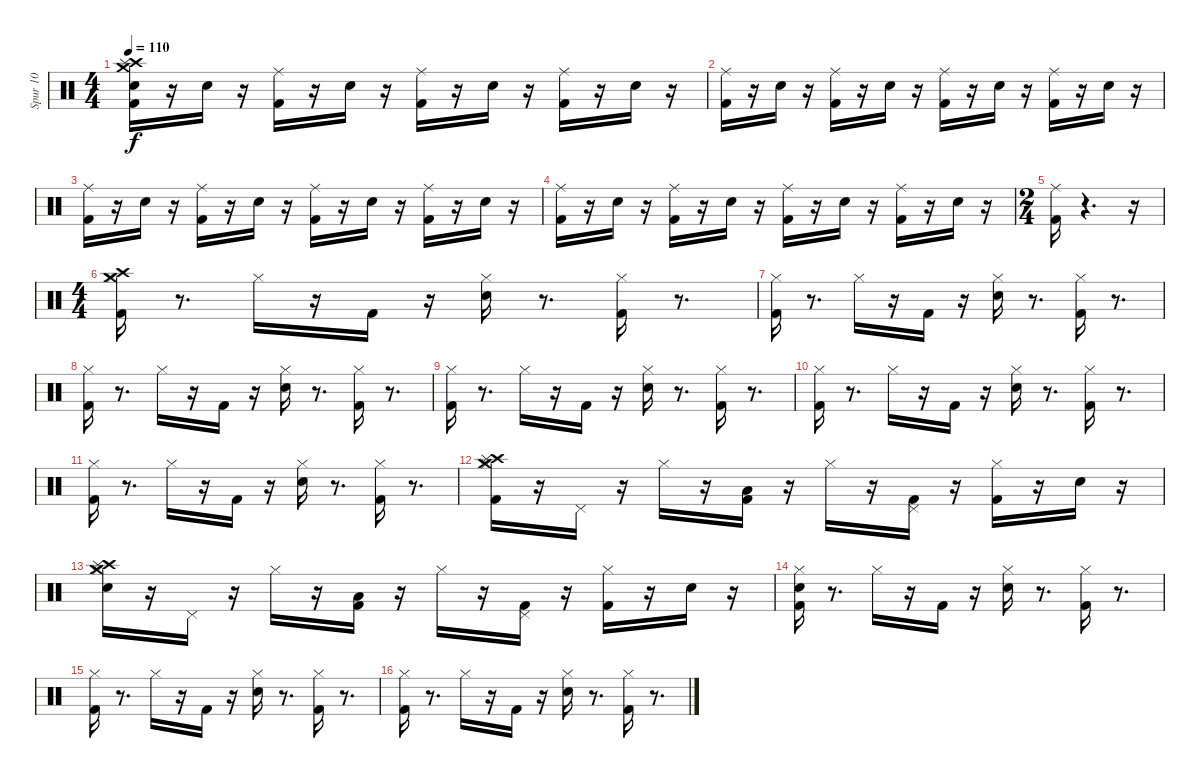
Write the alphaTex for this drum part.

\track ("Spur 10" "Spur 10") {instrument percussion}
\staff {score}
\articulation defaults
\ts (4 4)
\tempo 110
\clef neutral
\ks c
("Kick (hit) 2" "Snare (hit) 2" "Crash high (hit)" "Splash (hit)" "Crash medium (hit)").16{dy f} r.16 "Snare (hit) 2".16 r.16 ("Kick (hit) 2" "Ride (middle)").16 r.16 "Snare (hit) 2".16 r.16 ("Kick (hit) 2" "Ride (middle)").16 r.16 "Snare (hit) 2".16 r.16 ("Kick (hit) 2" "Ride (middle)").16 r.16 "Snare (hit) 2".16 r.16 |
("Kick (hit) 2" "Ride (middle)").16 r.16 "Snare (hit) 2".16 r.16 ("Kick (hit) 2" "Ride (middle)").16 r.16 "Snare (hit) 2".16 r.16 ("Kick (hit) 2" "Ride (middle)").16 r.16 "Snare (hit) 2".16 r.16 ("Kick (hit) 2" "Ride (middle)").16 r.16 "Snare (hit) 2".16 r.16 |
("Kick (hit) 2" "Ride (middle)").16 r.16 "Snare (hit) 2".16 r.16 ("Kick (hit) 2" "Ride (middle)").16 r.16 "Snare (hit) 2".16 r.16 ("Kick (hit) 2" "Ride (middle)").16 r.16 "Snare (hit) 2".16 r.16 ("Kick (hit) 2" "Ride (middle)").16 r.16 "Snare (hit) 2".16 r.16 |
("Kick (hit) 2" "Ride (middle)").16 r.16 "Snare (hit) 2".16 r.16 ("Kick (hit) 2" "Ride (middle)").16 r.16 "Snare (hit) 2".16 r.16 ("Kick (hit) 2" "Ride (middle)").16 r.16 "Snare (hit) 2".16 r.16 ("Kick (hit) 2" "Ride (middle)").16 r.16 "Snare (hit) 2".16 r.16 |
\ts (2 4)
("Kick (hit) 2" "Ride (middle)").16 r.4{d} r.16 |
\ts (4 4)
("Kick (hit) 2" "Hi-Hat (closed)" "Crash high (hit)" "Crash medium (hit)").16 r.8{d} "Hi-Hat (closed)".16 r.16 "Kick (hit) 2".16 r.16 ("Hi-Hat (closed)" "Snare (hit) 2").16 r.8{d} ("Hi-Hat (closed)" "Kick (hit) 2").16 r.8{d} |
("Hi-Hat (closed)" "Kick (hit) 2").16 r.8{d} "Hi-Hat (closed)".16 r.16 "Kick (hit) 2".16 r.16 ("Hi-Hat (closed)" "Snare (hit) 2").16 r.8{d} ("Hi-Hat (closed)" "Kick (hit) 2").16 r.8{d} |
("Hi-Hat (closed)" "Kick (hit) 2").16 r.8{d} "Hi-Hat (closed)".16 r.16 "Kick (hit) 2".16 r.16 ("Hi-Hat (closed)" "Snare (hit) 2").16 r.8{d} ("Hi-Hat (closed)" "Kick (hit) 2").16 r.8{d} |
("Hi-Hat (closed)" "Kick (hit) 2").16 r.8{d} "Hi-Hat (closed)".16 r.16 "Kick (hit) 2".16 r.16 ("Hi-Hat (closed)" "Snare (hit) 2").16 r.8{d} ("Hi-Hat (closed)" "Kick (hit) 2").16 r.8{d} |
("Hi-Hat (closed)" "Kick (hit) 2").16 r.8{d} "Hi-Hat (closed)".16 r.16 "Kick (hit) 2".16 r.16 ("Hi-Hat (closed)" "Snare (hit) 2").16 r.8{d} ("Hi-Hat (closed)" "Kick (hit) 2").16 r.8{d} |
("Hi-Hat (closed)" "Kick (hit) 2").16 r.8{d} "Hi-Hat (closed)".16 r.16 "Kick (hit) 2".16 r.16 ("Hi-Hat (closed)" "Snare (hit) 2").16 r.8{d} ("Hi-Hat (closed)" "Kick (hit) 2").16 r.8{d} |
("Hi-Hat (closed)" "Kick (hit) 2" "Crash high (hit)" "Splash (hit)" "Crash medium (hit)").16 r.16 "Pedal Hi-Hat (hit)".16 r.16 "Hi-Hat (closed)".16 r.16 ("Kick (hit) 2" "Low Floor Tom (hit)").16 r.16 "Hi-Hat (closed)".16 r.16 ("Kick (hit) 2" "Pedal Hi-Hat (hit)").16 r.16 ("Kick (hit) 2" "Hi-Hat (closed)").16 r.16 "Snare (hit) 2".16 r.16 |
("Snare (hit) 2" "Hi-Hat (closed)" "Crash high (hit)" "Splash (hit)" "Crash medium (hit)").16 r.16 "Pedal Hi-Hat (hit)".16 r.16 "Hi-Hat (closed)".16 r.16 ("Kick (hit) 2" "Low Floor Tom (hit)").16 r.16 "Hi-Hat (closed)".16 r.16 ("Kick (hit) 2" "Pedal Hi-Hat (hit)").16 r.16 ("Kick (hit) 2" "Hi-Hat (closed)").16 r.16 "Snare (hit) 2".16 r.16 |
("Kick (hit) 2" "Snare (hit) 2" "Hi-Hat (closed)").16 r.8{d} "Hi-Hat (closed)".16 r.16 "Kick (hit) 2".16 r.16 ("Snare (hit) 2" "Hi-Hat (closed)").16 r.8{d} ("Kick (hit) 2" "Hi-Hat (closed)").16 r.8{d} |
("Kick (hit) 2" "Hi-Hat (closed)").16 r.8{d} "Hi-Hat (closed)".16 r.16 "Kick (hit) 2".16 r.16 ("Snare (hit) 2" "Hi-Hat (closed)").16 r.8{d} ("Kick (hit) 2" "Hi-Hat (closed)").16 r.8{d} |
("Kick (hit) 2" "Hi-Hat (closed)").16 r.8{d} "Hi-Hat (closed)".16 r.16 "Kick (hit) 2".16 r.16 ("Snare (hit) 2" "Hi-Hat (closed)").16 r.8{d} ("Kick (hit) 2" "Hi-Hat (closed)").16 r.8{d}
